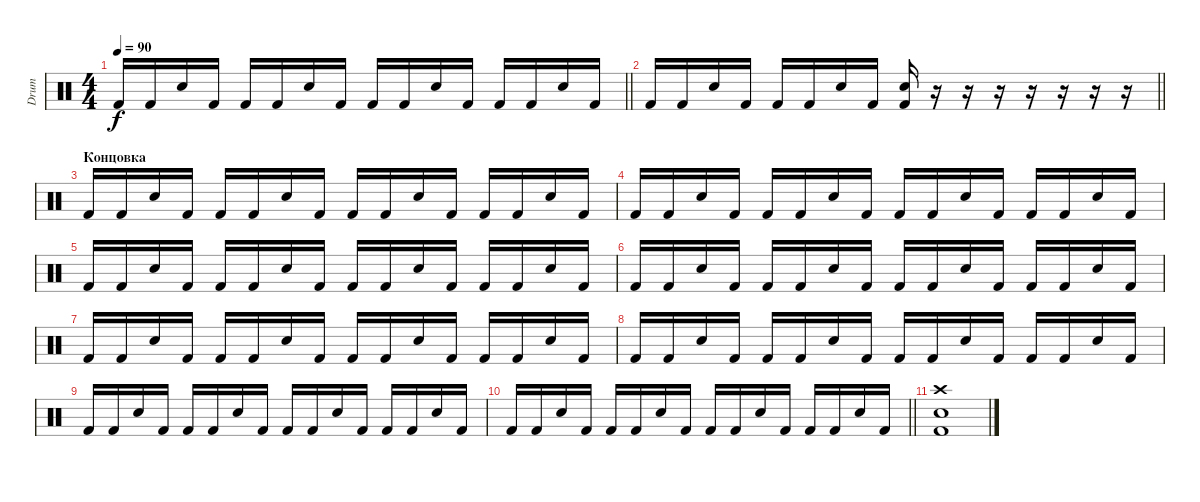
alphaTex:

\track ("Drum" "Drum") {instrument percussion}
\staff {score}
\articulation defaults
\ts (4 4)
\tempo 90
\clef neutral
\barLineRight lightlight
\ks c "Kick (hit) 2".16{dy f} "Kick (hit) 2".16 "Snare (hit) 2".16 "Kick (hit) 2".16 "Kick (hit) 2".16 "Kick (hit) 2".16 "Snare (hit) 2".16 "Kick (hit) 2".16 "Kick (hit) 2".16 "Kick (hit) 2".16 "Snare (hit) 2".16 "Kick (hit) 2".16 "Kick (hit) 2".16 "Kick (hit) 2".16 "Snare (hit) 2".16 "Kick (hit) 2".16
|
\barLineRight lightlight "Kick (hit) 2".16 "Kick (hit) 2".16 "Snare (hit) 2".16 "Kick (hit) 2".16 "Kick (hit) 2".16 "Kick (hit) 2".16 "Snare (hit) 2".16 "Kick (hit) 2".16
("Snare (hit) 2" "Kick (hit) 2").16 r.16 r.16 r.16 r.16 r.16 r.16 r.16 |
\section ("" "Концовка")
"Kick (hit) 2".16 "Kick (hit) 2".16 "Snare (hit) 2".16 "Kick (hit) 2".16 "Kick (hit) 2".16 "Kick (hit) 2".16 "Snare (hit) 2".16 "Kick (hit) 2".16 "Kick (hit) 2".16 "Kick (hit) 2".16 "Snare (hit) 2".16 "Kick (hit) 2".16 "Kick (hit) 2".16 "Kick (hit) 2".16 "Snare (hit) 2".16 "Kick (hit) 2".16 |
"Kick (hit) 2".16 "Kick (hit) 2".16 "Snare (hit) 2".16 "Kick (hit) 2".16 "Kick (hit) 2".16 "Kick (hit) 2".16 "Snare (hit) 2".16 "Kick (hit) 2".16 "Kick (hit) 2".16 "Kick (hit) 2".16 "Snare (hit) 2".16 "Kick (hit) 2".16 "Kick (hit) 2".16 "Kick (hit) 2".16 "Snare (hit) 2".16 "Kick (hit) 2".16 |
"Kick (hit) 2".16 "Kick (hit) 2".16 "Snare (hit) 2".16 "Kick (hit) 2".16 "Kick (hit) 2".16 "Kick (hit) 2".16 "Snare (hit) 2".16 "Kick (hit) 2".16 "Kick (hit) 2".16 "Kick (hit) 2".16 "Snare (hit) 2".16 "Kick (hit) 2".16 "Kick (hit) 2".16 "Kick (hit) 2".16 "Snare (hit) 2".16 "Kick (hit) 2".16 |
"Kick (hit) 2".16 "Kick (hit) 2".16 "Snare (hit) 2".16 "Kick (hit) 2".16 "Kick (hit) 2".16 "Kick (hit) 2".16 "Snare (hit) 2".16 "Kick (hit) 2".16 "Kick (hit) 2".16 "Kick (hit) 2".16 "Snare (hit) 2".16 "Kick (hit) 2".16 "Kick (hit) 2".16 "Kick (hit) 2".16 "Snare (hit) 2".16 "Kick (hit) 2".16 |
"Kick (hit) 2".16 "Kick (hit) 2".16 "Snare (hit) 2".16 "Kick (hit) 2".16 "Kick (hit) 2".16 "Kick (hit) 2".16 "Snare (hit) 2".16 "Kick (hit) 2".16 "Kick (hit) 2".16 "Kick (hit) 2".16 "Snare (hit) 2".16 "Kick (hit) 2".16 "Kick (hit) 2".16 "Kick (hit) 2".16 "Snare (hit) 2".16 "Kick (hit) 2".16 |
"Kick (hit) 2".16 "Kick (hit) 2".16 "Snare (hit) 2".16 "Kick (hit) 2".16 "Kick (hit) 2".16 "Kick (hit) 2".16 "Snare (hit) 2".16 "Kick (hit) 2".16 "Kick (hit) 2".16 "Kick (hit) 2".16 "Snare (hit) 2".16 "Kick (hit) 2".16 "Kick (hit) 2".16 "Kick (hit) 2".16 "Snare (hit) 2".16 "Kick (hit) 2".16 |
"Kick (hit) 2".16 "Kick (hit) 2".16 "Snare (hit) 2".16 "Kick (hit) 2".16 "Kick (hit) 2".16 "Kick (hit) 2".16 "Snare (hit) 2".16 "Kick (hit) 2".16 "Kick (hit) 2".16 "Kick (hit) 2".16 "Snare (hit) 2".16 "Kick (hit) 2".16 "Kick (hit) 2".16 "Kick (hit) 2".16 "Snare (hit) 2".16 "Kick (hit) 2".16 |
\barLineRight lightlight "Kick (hit) 2".16 "Kick (hit) 2".16 "Snare (hit) 2".16 "Kick (hit) 2".16 "Kick (hit) 2".16 "Kick (hit) 2".16 "Snare (hit) 2".16 "Kick (hit) 2".16 "Kick (hit) 2".16 "Kick (hit) 2".16 "Snare (hit) 2".16 "Kick (hit) 2".16 "Kick (hit) 2".16 "Kick (hit) 2".16 "Snare (hit) 2".16 "Kick (hit) 2".16
|
("Crash high (hit)" "Snare (hit) 2" "Kick (hit) 2").1
